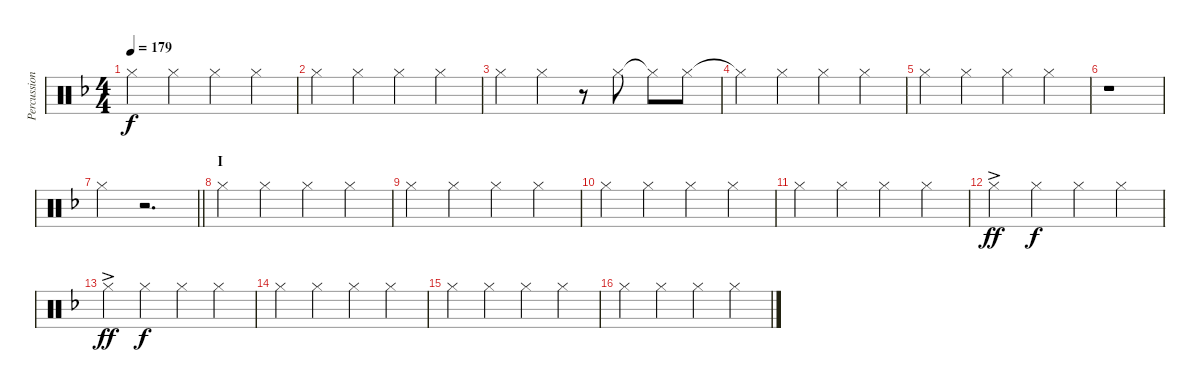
\track ("Percussion 01" "Percussion") {instrument percussion}
\staff {score}
\articulation defaults
\ts (4 4)
\tempo 179
\clef neutral
\ks dminor "Hi-Hat (closed)".4{dy f} "Hi-Hat (closed)".4 "Hi-Hat (closed)".4 "Hi-Hat (closed)".4
|
"Hi-Hat (closed)".4 "Hi-Hat (closed)".4 "Hi-Hat (closed)".4 "Hi-Hat (closed)".4 |
"Hi-Hat (closed)".4 "Hi-Hat (closed)".4 r.8 "Hi-Hat (closed)".8 "Hi-Hat (closed)"{t}.8 "Hi-Hat (closed)".8 |
"Hi-Hat (closed)"{t}.4 "Hi-Hat (closed)".4 "Hi-Hat (closed)".4 "Hi-Hat (closed)".4 |
"Hi-Hat (closed)".4 "Hi-Hat (closed)".4 "Hi-Hat (closed)".4 "Hi-Hat (closed)".4 |
r.1 |
\barLineRight lightlight "Hi-Hat (closed)".4
r.2{d} |
\section ("" "I")
"Hi-Hat (closed)".4 "Hi-Hat (closed)".4 "Hi-Hat (closed)".4 "Hi-Hat (closed)".4 |
"Hi-Hat (closed)".4 "Hi-Hat (closed)".4 "Hi-Hat (closed)".4 "Hi-Hat (closed)".4 |
"Hi-Hat (closed)".4 "Hi-Hat (closed)".4 "Hi-Hat (closed)".4 "Hi-Hat (closed)".4 |
"Hi-Hat (closed)".4 "Hi-Hat (closed)".4 "Hi-Hat (closed)".4 "Hi-Hat (closed)".4 |
"Hi-Hat (closed)"{ac}.4{dy ff} "Hi-Hat (closed)".4{dy f} "Hi-Hat (closed)".4 "Hi-Hat (closed)".4 |
"Hi-Hat (closed)"{ac}.4{dy ff} "Hi-Hat (closed)".4{dy f} "Hi-Hat (closed)".4 "Hi-Hat (closed)".4 |
"Hi-Hat (closed)".4 "Hi-Hat (closed)".4 "Hi-Hat (closed)".4 "Hi-Hat (closed)".4 |
"Hi-Hat (closed)".4 "Hi-Hat (closed)".4 "Hi-Hat (closed)".4 "Hi-Hat (closed)".4 |
"Hi-Hat (closed)".4 "Hi-Hat (closed)".4 "Hi-Hat (closed)".4 "Hi-Hat (closed)".4
